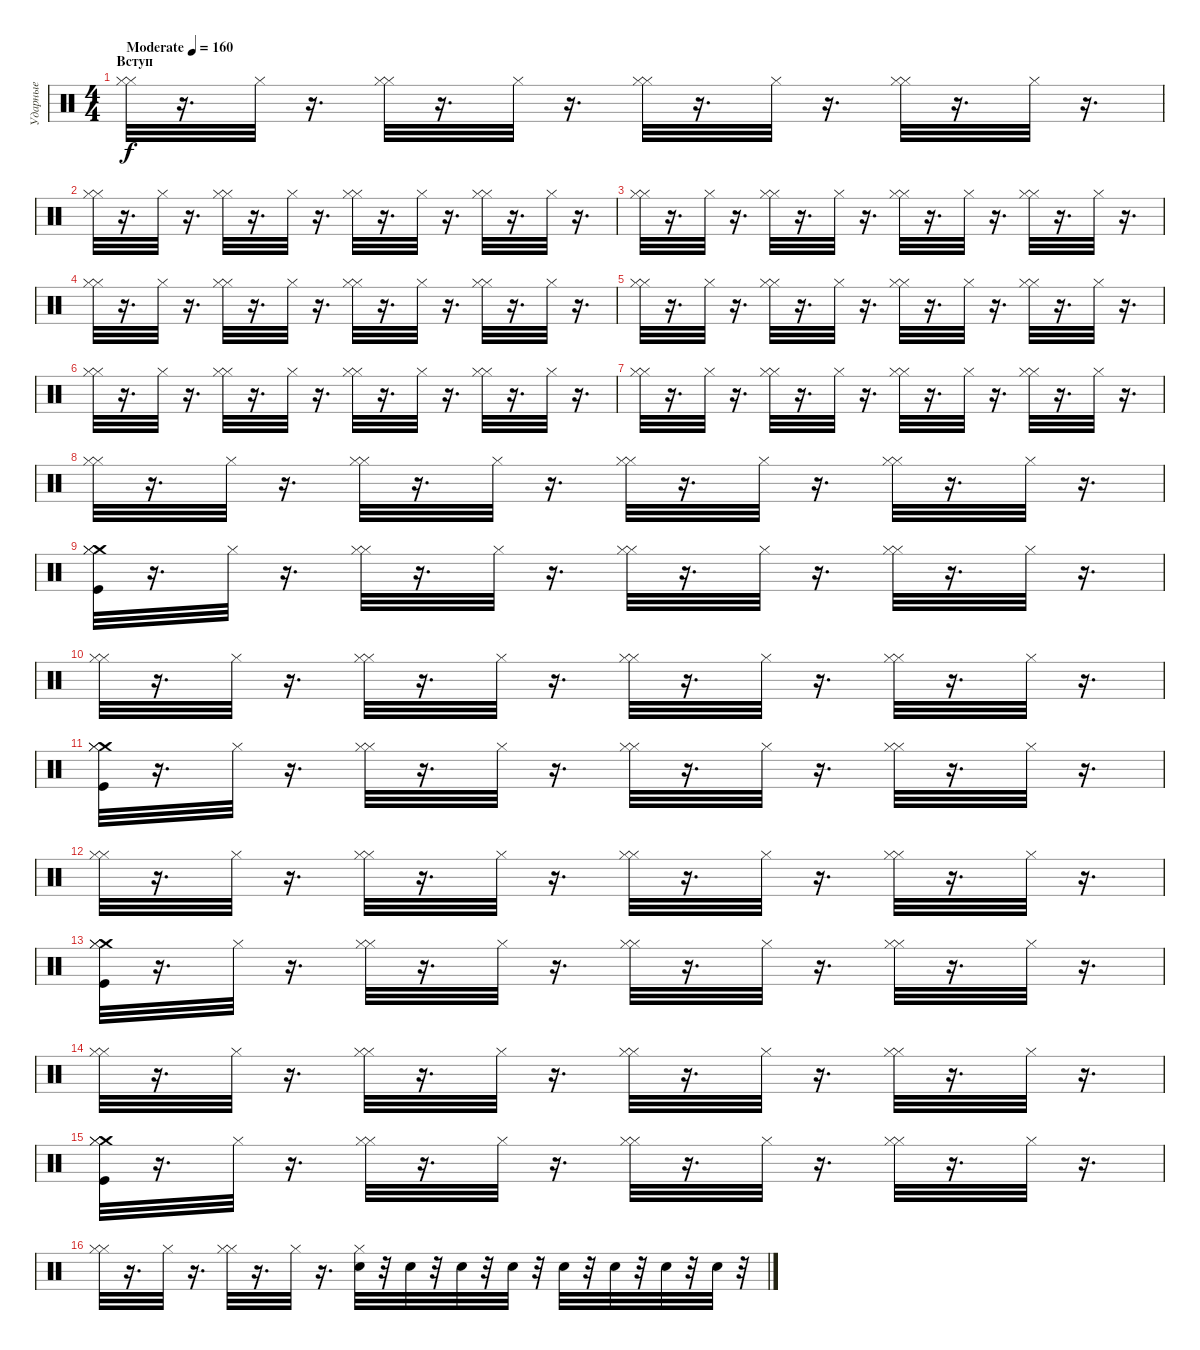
\track ("Ударные" "Ударные") {instrument percussion}
\staff {score}
\articulation defaults
\ts (4 4)
\section ("" "Вступ")
\tempo (160 "Moderate")
\clef neutral
\ks c
("Hi-Hat (closed)" "Hi-Hat (closed)").32{dy f} r.16{d} "Hi-Hat (closed)".32 r.16{d} ("Hi-Hat (closed)" "Hi-Hat (closed)").32 r.16{d} "Hi-Hat (closed)".32 r.16{d} ("Hi-Hat (closed)" "Hi-Hat (closed)").32 r.16{d} "Hi-Hat (closed)".32 r.16{d} ("Hi-Hat (closed)" "Hi-Hat (closed)").32 r.16{d} "Hi-Hat (closed)".32 r.16{d} |
("Hi-Hat (closed)" "Hi-Hat (closed)").32 r.16{d} "Hi-Hat (closed)".32 r.16{d} ("Hi-Hat (closed)" "Hi-Hat (closed)").32 r.16{d} "Hi-Hat (closed)".32 r.16{d} ("Hi-Hat (closed)" "Hi-Hat (closed)").32 r.16{d} "Hi-Hat (closed)".32 r.16{d} ("Hi-Hat (closed)" "Hi-Hat (closed)").32 r.16{d} "Hi-Hat (closed)".32 r.16{d} |
("Hi-Hat (closed)" "Hi-Hat (closed)").32 r.16{d} "Hi-Hat (closed)".32 r.16{d} ("Hi-Hat (closed)" "Hi-Hat (closed)").32 r.16{d} "Hi-Hat (closed)".32 r.16{d} ("Hi-Hat (closed)" "Hi-Hat (closed)").32 r.16{d} "Hi-Hat (closed)".32 r.16{d} ("Hi-Hat (closed)" "Hi-Hat (closed)").32 r.16{d} "Hi-Hat (closed)".32 r.16{d} |
("Hi-Hat (closed)" "Hi-Hat (closed)").32 r.16{d} "Hi-Hat (closed)".32 r.16{d} ("Hi-Hat (closed)" "Hi-Hat (closed)").32 r.16{d} "Hi-Hat (closed)".32 r.16{d} ("Hi-Hat (closed)" "Hi-Hat (closed)").32 r.16{d} "Hi-Hat (closed)".32 r.16{d} ("Hi-Hat (closed)" "Hi-Hat (closed)").32 r.16{d} "Hi-Hat (closed)".32 r.16{d} |
("Hi-Hat (closed)" "Hi-Hat (closed)").32 r.16{d} "Hi-Hat (closed)".32 r.16{d} ("Hi-Hat (closed)" "Hi-Hat (closed)").32 r.16{d} "Hi-Hat (closed)".32 r.16{d} ("Hi-Hat (closed)" "Hi-Hat (closed)").32 r.16{d} "Hi-Hat (closed)".32 r.16{d} ("Hi-Hat (closed)" "Hi-Hat (closed)").32 r.16{d} "Hi-Hat (closed)".32 r.16{d} |
("Hi-Hat (closed)" "Hi-Hat (closed)").32 r.16{d} "Hi-Hat (closed)".32 r.16{d} ("Hi-Hat (closed)" "Hi-Hat (closed)").32 r.16{d} "Hi-Hat (closed)".32 r.16{d} ("Hi-Hat (closed)" "Hi-Hat (closed)").32 r.16{d} "Hi-Hat (closed)".32 r.16{d} ("Hi-Hat (closed)" "Hi-Hat (closed)").32 r.16{d} "Hi-Hat (closed)".32 r.16{d} |
("Hi-Hat (closed)" "Hi-Hat (closed)").32 r.16{d} "Hi-Hat (closed)".32 r.16{d} ("Hi-Hat (closed)" "Hi-Hat (closed)").32 r.16{d} "Hi-Hat (closed)".32 r.16{d} ("Hi-Hat (closed)" "Hi-Hat (closed)").32 r.16{d} "Hi-Hat (closed)".32 r.16{d} ("Hi-Hat (closed)" "Hi-Hat (closed)").32 r.16{d} "Hi-Hat (closed)".32 r.16{d} |
("Hi-Hat (closed)" "Hi-Hat (closed)").32 r.16{d} "Hi-Hat (closed)".32 r.16{d} ("Hi-Hat (closed)" "Hi-Hat (closed)").32 r.16{d} "Hi-Hat (closed)".32 r.16{d} ("Hi-Hat (closed)" "Hi-Hat (closed)").32 r.16{d} "Hi-Hat (closed)".32 r.16{d} ("Hi-Hat (closed)" "Hi-Hat (closed)").32 r.16{d} "Hi-Hat (closed)".32 r.16{d} |
("Crash medium (hit)" "Kick (hit)" "Hi-Hat (closed)" "Hi-Hat (closed)").32 r.16{d} "Hi-Hat (closed)".32 r.16{d} ("Hi-Hat (closed)" "Hi-Hat (closed)").32 r.16{d} "Hi-Hat (closed)".32 r.16{d} ("Hi-Hat (closed)" "Hi-Hat (closed)").32 r.16{d} "Hi-Hat (closed)".32 r.16{d} ("Hi-Hat (closed)" "Hi-Hat (closed)").32 r.16{d} "Hi-Hat (closed)".32 r.16{d} |
("Hi-Hat (closed)" "Hi-Hat (closed)").32 r.16{d} "Hi-Hat (closed)".32 r.16{d} ("Hi-Hat (closed)" "Hi-Hat (closed)").32 r.16{d} "Hi-Hat (closed)".32 r.16{d} ("Hi-Hat (closed)" "Hi-Hat (closed)").32 r.16{d} "Hi-Hat (closed)".32 r.16{d} ("Hi-Hat (closed)" "Hi-Hat (closed)").32 r.16{d} "Hi-Hat (closed)".32 r.16{d} |
("Crash medium (hit)" "Kick (hit)" "Hi-Hat (closed)" "Hi-Hat (closed)").32 r.16{d} "Hi-Hat (closed)".32 r.16{d} ("Hi-Hat (closed)" "Hi-Hat (closed)").32 r.16{d} "Hi-Hat (closed)".32 r.16{d} ("Hi-Hat (closed)" "Hi-Hat (closed)").32 r.16{d} "Hi-Hat (closed)".32 r.16{d} ("Hi-Hat (closed)" "Hi-Hat (closed)").32 r.16{d} "Hi-Hat (closed)".32 r.16{d} |
("Hi-Hat (closed)" "Hi-Hat (closed)").32 r.16{d} "Hi-Hat (closed)".32 r.16{d} ("Hi-Hat (closed)" "Hi-Hat (closed)").32 r.16{d} "Hi-Hat (closed)".32 r.16{d} ("Hi-Hat (closed)" "Hi-Hat (closed)").32 r.16{d} "Hi-Hat (closed)".32 r.16{d} ("Hi-Hat (closed)" "Hi-Hat (closed)").32 r.16{d} "Hi-Hat (closed)".32 r.16{d} |
("Crash medium (hit)" "Kick (hit)" "Hi-Hat (closed)" "Hi-Hat (closed)").32 r.16{d} "Hi-Hat (closed)".32 r.16{d} ("Hi-Hat (closed)" "Hi-Hat (closed)").32 r.16{d} "Hi-Hat (closed)".32 r.16{d} ("Hi-Hat (closed)" "Hi-Hat (closed)").32 r.16{d} "Hi-Hat (closed)".32 r.16{d} ("Hi-Hat (closed)" "Hi-Hat (closed)").32 r.16{d} "Hi-Hat (closed)".32 r.16{d} |
("Hi-Hat (closed)" "Hi-Hat (closed)").32 r.16{d} "Hi-Hat (closed)".32 r.16{d} ("Hi-Hat (closed)" "Hi-Hat (closed)").32 r.16{d} "Hi-Hat (closed)".32 r.16{d} ("Hi-Hat (closed)" "Hi-Hat (closed)").32 r.16{d} "Hi-Hat (closed)".32 r.16{d} ("Hi-Hat (closed)" "Hi-Hat (closed)").32 r.16{d} "Hi-Hat (closed)".32 r.16{d} |
("Crash medium (hit)" "Kick (hit)" "Hi-Hat (closed)" "Hi-Hat (closed)").32 r.16{d} "Hi-Hat (closed)".32 r.16{d} ("Hi-Hat (closed)" "Hi-Hat (closed)").32 r.16{d} "Hi-Hat (closed)".32 r.16{d} ("Hi-Hat (closed)" "Hi-Hat (closed)").32 r.16{d} "Hi-Hat (closed)".32 r.16{d} ("Hi-Hat (closed)" "Hi-Hat (closed)").32 r.16{d} "Hi-Hat (closed)".32 r.16{d} |
("Hi-Hat (closed)" "Hi-Hat (closed)").32 r.16{d} "Hi-Hat (closed)".32 r.16{d} ("Hi-Hat (closed)" "Hi-Hat (closed)").32 r.16{d} "Hi-Hat (closed)".32 r.16{d} ("Hi-Hat (closed)" "Snare (hit) 2").32 r.32 "Snare (hit) 2".32 r.32 "Snare (hit) 2".32 r.32 "Snare (hit) 2".32 r.32 "Snare (hit) 2".32 r.32 "Snare (hit) 2".32 r.32 "Snare (hit) 2".32 r.32 "Snare (hit) 2".32 r.32
